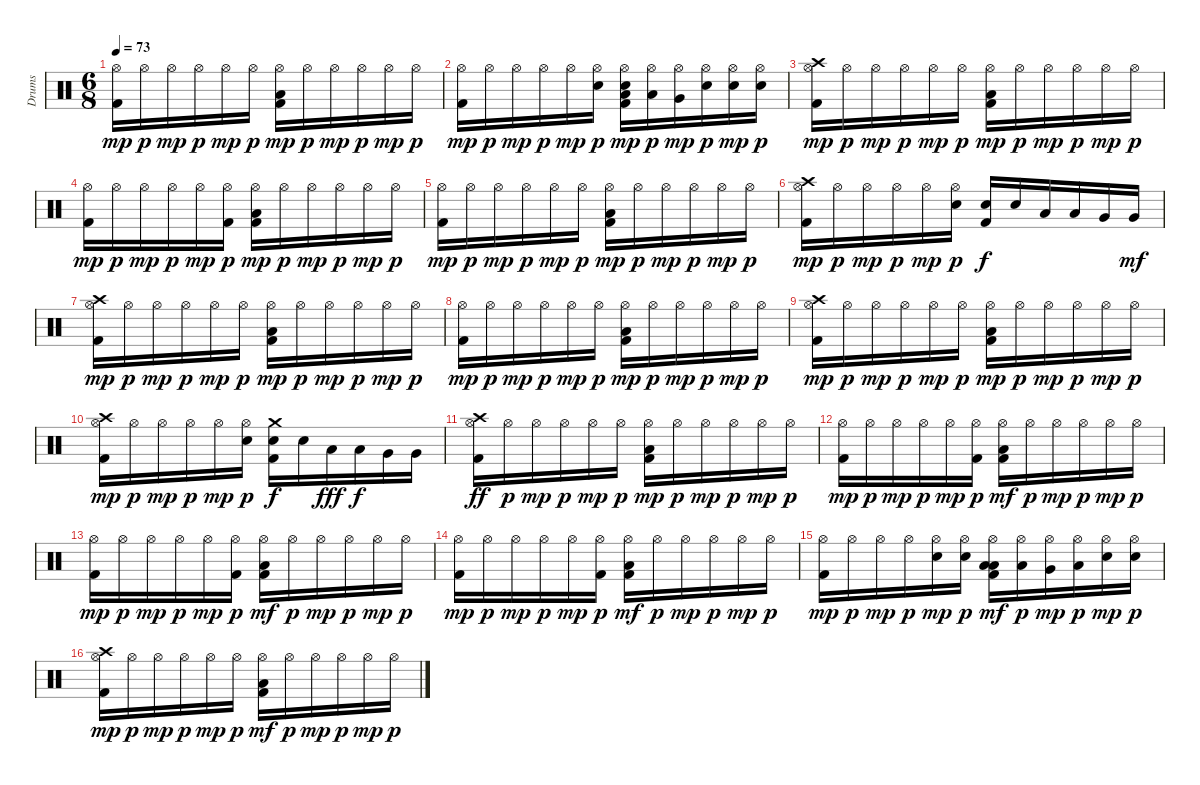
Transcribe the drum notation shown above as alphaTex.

\track ("Drums" "Drums") {instrument percussion}
\staff {score}
\articulation defaults
\ts (6 8)
\tempo 73
\clef neutral
\ks c
("Kick (hit) 2" "Hi-Hat (open)").16{dy mp} "Hi-Hat (open)".16{dy p} "Hi-Hat (open)".16{dy mp} "Hi-Hat (open)".16{dy p} "Hi-Hat (open)".16{dy mp} "Hi-Hat (open)".16{dy p} ("Kick (hit) 2" "Low Floor Tom (hit)" "Hi-Hat (open)").16{dy mp} "Hi-Hat (open)".16{dy p} "Hi-Hat (open)".16{dy mp} "Hi-Hat (open)".16{dy p} "Hi-Hat (open)".16{dy mp} "Hi-Hat (open)".16{dy p} |
("Kick (hit) 2" "Hi-Hat (open)").16{dy mp} "Hi-Hat (open)".16{dy p} "Hi-Hat (open)".16{dy mp} "Hi-Hat (open)".16{dy p} "Hi-Hat (open)".16{dy mp} ("Snare (hit) 2" "Hi-Hat (open)").16{dy p} ("Snare (hit) 2" "Low Floor Tom (hit)" "Kick (hit) 2" "Hi-Hat (open)").16{dy mp} ("Low Tom (hit)" "Hi-Hat (open)").16{dy p} ("Very Low Tom (hit)" "Hi-Hat (open)").16{dy mp} ("Snare (hit) 2" "Hi-Hat (open)").16{dy p} ("Snare (hit) 2" "Hi-Hat (open)").16{dy mp} ("Snare (hit) 2" "Hi-Hat (open)").16{dy p} |
("Crash high (hit)" "Kick (hit) 2" "Hi-Hat (open)").16{dy mp} "Hi-Hat (open)".16{dy p} "Hi-Hat (open)".16{dy mp} "Hi-Hat (open)".16{dy p} "Hi-Hat (open)".16{dy mp} "Hi-Hat (open)".16{dy p} ("Low Floor Tom (hit)" "Kick (hit) 2" "Hi-Hat (open)").16{dy mp} "Hi-Hat (open)".16{dy p} "Hi-Hat (open)".16{dy mp} "Hi-Hat (open)".16{dy p} "Hi-Hat (open)".16{dy mp} "Hi-Hat (open)".16{dy p} |
("Kick (hit) 2" "Hi-Hat (open)").16{dy mp} "Hi-Hat (open)".16{dy p} "Hi-Hat (open)".16{dy mp} "Hi-Hat (open)".16{dy p} "Hi-Hat (open)".16{dy mp} ("Kick (hit) 2" "Hi-Hat (open)").16{dy p} ("Kick (hit) 2" "Low Floor Tom (hit)" "Hi-Hat (open)").16{dy mp} "Hi-Hat (open)".16{dy p} "Hi-Hat (open)".16{dy mp} "Hi-Hat (open)".16{dy p} "Hi-Hat (open)".16{dy mp} "Hi-Hat (open)".16{dy p} |
("Kick (hit) 2" "Hi-Hat (open)").16{dy mp} "Hi-Hat (open)".16{dy p} "Hi-Hat (open)".16{dy mp} "Hi-Hat (open)".16{dy p} "Hi-Hat (open)".16{dy mp} "Hi-Hat (open)".16{dy p} ("Kick (hit) 2" "Low Floor Tom (hit)" "Hi-Hat (open)").16{dy mp} "Hi-Hat (open)".16{dy p} "Hi-Hat (open)".16{dy mp} "Hi-Hat (open)".16{dy p} "Hi-Hat (open)".16{dy mp} "Hi-Hat (open)".16{dy p} |
("Kick (hit) 2" "Crash high (hit)" "Hi-Hat (open)").16{dy mp} "Hi-Hat (open)".16{dy p} "Hi-Hat (open)".16{dy mp} "Hi-Hat (open)".16{dy p} "Hi-Hat (open)".16{dy mp} ("Snare (hit) 2" "Hi-Hat (open)").16{dy p} ("Kick (hit) 2" "Snare (hit) 2").16{dy f} "Snare (hit) 2".16 "Low Tom (hit)".16 "Low Tom (hit)".16 "Very Low Tom (hit)".16 "Very Low Tom (hit)".16{dy mf} |
("Crash high (hit)" "Kick (hit) 2" "Hi-Hat (open)").16{dy mp} "Hi-Hat (open)".16{dy p} "Hi-Hat (open)".16{dy mp} "Hi-Hat (open)".16{dy p} "Hi-Hat (open)".16{dy mp} "Hi-Hat (open)".16{dy p} ("Low Floor Tom (hit)" "Kick (hit) 2" "Hi-Hat (open)").16{dy mp} "Hi-Hat (open)".16{dy p} "Hi-Hat (open)".16{dy mp} "Hi-Hat (open)".16{dy p} "Hi-Hat (open)".16{dy mp} "Hi-Hat (open)".16{dy p} |
("Kick (hit) 2" "Hi-Hat (open)").16{dy mp} "Hi-Hat (open)".16{dy p} "Hi-Hat (open)".16{dy mp} "Hi-Hat (open)".16{dy p} "Hi-Hat (open)".16{dy mp} "Hi-Hat (open)".16{dy p} ("Kick (hit) 2" "Low Floor Tom (hit)" "Hi-Hat (open)").16{dy mp} "Hi-Hat (open)".16{dy p} "Hi-Hat (open)".16{dy mp} "Hi-Hat (open)".16{dy p} "Hi-Hat (open)".16{dy mp} "Hi-Hat (open)".16{dy p} |
("Crash high (hit)" "Kick (hit) 2" "Hi-Hat (open)").16{dy mp} "Hi-Hat (open)".16{dy p} "Hi-Hat (open)".16{dy mp} "Hi-Hat (open)".16{dy p} "Hi-Hat (open)".16{dy mp} "Hi-Hat (open)".16{dy p} ("Kick (hit) 2" "Low Floor Tom (hit)" "Hi-Hat (open)").16{dy mp} "Hi-Hat (open)".16{dy p} "Hi-Hat (open)".16{dy mp} "Hi-Hat (open)".16{dy p} "Hi-Hat (open)".16{dy mp} "Hi-Hat (open)".16{dy p} |
("Kick (hit) 2" "Crash high (hit)" "Hi-Hat (open)").16{dy mp} "Hi-Hat (open)".16{dy p} "Hi-Hat (open)".16{dy mp} "Hi-Hat (open)".16{dy p} "Hi-Hat (open)".16{dy mp} ("Snare (hit) 2" "Hi-Hat (open)").16{dy p} ("Crash medium (hit)" "Kick (hit) 2" "Snare (hit) 2").16{dy f} "Snare (hit) 2".16 "Low Tom (hit)".16{dy fff} "Low Tom (hit)".16{dy f} "Very Low Tom (hit)".16 "Very Low Tom (hit)".16 |
("Crash high (hit)" "Kick (hit) 2" "Hi-Hat (open)").16{dy ff} "Hi-Hat (open)".16{dy p} "Hi-Hat (open)".16{dy mp} "Hi-Hat (open)".16{dy p} "Hi-Hat (open)".16{dy mp} "Hi-Hat (open)".16{dy p} ("Kick (hit) 2" "Low Floor Tom (hit)" "Hi-Hat (open)").16{dy mp} "Hi-Hat (open)".16{dy p} "Hi-Hat (open)".16{dy mp} "Hi-Hat (open)".16{dy p} "Hi-Hat (open)".16{dy mp} "Hi-Hat (open)".16{dy p} |
("Hi-Hat (open)" "Kick (hit) 2").16{dy mp} "Hi-Hat (open)".16{dy p} "Hi-Hat (open)".16{dy mp} "Hi-Hat (open)".16{dy p} "Hi-Hat (open)".16{dy mp} ("Kick (hit) 2" "Hi-Hat (open)").16{dy p} ("Hi-Hat (open)" "Low Floor Tom (hit)" "Kick (hit) 2").16{dy mf} "Hi-Hat (open)".16{dy p} "Hi-Hat (open)".16{dy mp} "Hi-Hat (open)".16{dy p} "Hi-Hat (open)".16{dy mp} "Hi-Hat (open)".16{dy p} |
("Hi-Hat (open)" "Kick (hit) 2").16{dy mp} "Hi-Hat (open)".16{dy p} "Hi-Hat (open)".16{dy mp} "Hi-Hat (open)".16{dy p} "Hi-Hat (open)".16{dy mp} ("Kick (hit) 2" "Hi-Hat (open)").16{dy p} ("Hi-Hat (open)" "Low Floor Tom (hit)" "Kick (hit) 2").16{dy mf} "Hi-Hat (open)".16{dy p} "Hi-Hat (open)".16{dy mp} "Hi-Hat (open)".16{dy p} "Hi-Hat (open)".16{dy mp} "Hi-Hat (open)".16{dy p} |
("Hi-Hat (open)" "Kick (hit) 2").16{dy mp} "Hi-Hat (open)".16{dy p} "Hi-Hat (open)".16{dy mp} "Hi-Hat (open)".16{dy p} "Hi-Hat (open)".16{dy mp} ("Kick (hit) 2" "Hi-Hat (open)").16{dy p} ("Hi-Hat (open)" "Low Floor Tom (hit)" "Kick (hit) 2").16{dy mf} "Hi-Hat (open)".16{dy p} "Hi-Hat (open)".16{dy mp} "Hi-Hat (open)".16{dy p} "Hi-Hat (open)".16{dy mp} "Hi-Hat (open)".16{dy p} |
("Hi-Hat (open)" "Kick (hit) 2").16{dy mp} "Hi-Hat (open)".16{dy p} "Hi-Hat (open)".16{dy mp} "Hi-Hat (open)".16{dy p} ("Snare (hit) 2" "Hi-Hat (open)").16{dy mp} ("Snare (hit) 2" "Hi-Hat (open)").16{dy p} ("Low Tom (hit)" "Hi-Hat (open)" "Low Floor Tom (hit)" "Kick (hit) 2").16{dy mf} ("Low Tom (hit)" "Hi-Hat (open)").16{dy p} ("Very Low Tom (hit)" "Hi-Hat (open)").16{dy mp} ("Low Floor Tom (hit)" "Hi-Hat (open)").16{dy p} ("Snare (hit) 2" "Hi-Hat (open)").16{dy mp} ("Snare (hit) 2" "Hi-Hat (open)").16{dy p} |
("Crash high (hit)" "Hi-Hat (open)" "Kick (hit) 2").16{dy mp} "Hi-Hat (open)".16{dy p} "Hi-Hat (open)".16{dy mp} "Hi-Hat (open)".16{dy p} "Hi-Hat (open)".16{dy mp} "Hi-Hat (open)".16{dy p} ("Hi-Hat (open)" "Low Floor Tom (hit)" "Kick (hit) 2").16{dy mf} "Hi-Hat (open)".16{dy p} "Hi-Hat (open)".16{dy mp} "Hi-Hat (open)".16{dy p} "Hi-Hat (open)".16{dy mp} "Hi-Hat (open)".16{dy p}
